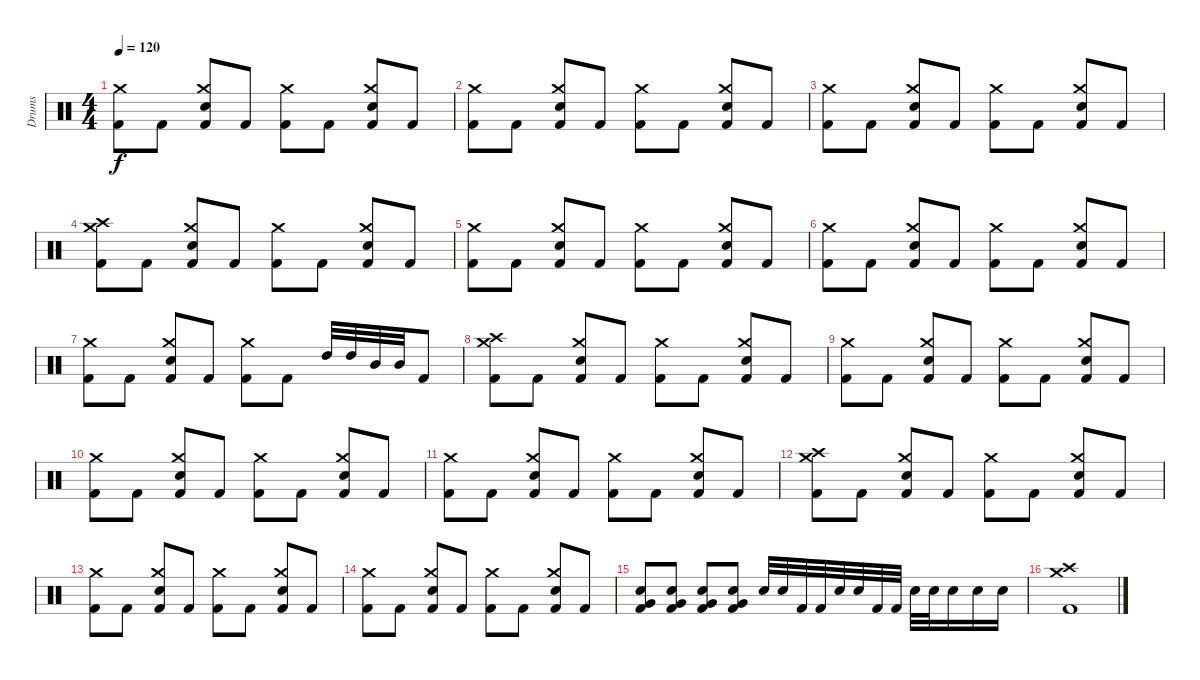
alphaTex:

\track ("Drums" "Drums") {instrument percussion}
\staff {score}
\articulation defaults
\ts (4 4)
\tempo 120
\clef neutral
\ks c
("Kick (hit) 2" "Crash medium (hit)").8{dy f} "Kick (hit) 2".8 ("Kick (hit) 2" "Snare (hit) 2" "Crash medium (hit)").8 "Kick (hit) 2".8 ("Kick (hit) 2" "Crash medium (hit)").8 "Kick (hit) 2".8 ("Kick (hit) 2" "Snare (hit) 2" "Crash medium (hit)").8 "Kick (hit) 2".8 |
("Kick (hit) 2" "Crash medium (hit)").8 "Kick (hit) 2".8 ("Kick (hit) 2" "Snare (hit) 2" "Crash medium (hit)").8 "Kick (hit) 2".8 ("Kick (hit) 2" "Crash medium (hit)").8 "Kick (hit) 2".8 ("Kick (hit) 2" "Snare (hit) 2" "Crash medium (hit)").8 "Kick (hit) 2".8 |
("Kick (hit) 2" "Crash medium (hit)").8 "Kick (hit) 2".8 ("Kick (hit) 2" "Snare (hit) 2" "Crash medium (hit)").8 "Kick (hit) 2".8 ("Kick (hit) 2" "Crash medium (hit)").8 "Kick (hit) 2".8 ("Kick (hit) 2" "Snare (hit) 2" "Crash medium (hit)").8 "Kick (hit) 2".8 |
("Kick (hit) 2" "Crash high (hit)" "Crash medium (hit)").8 "Kick (hit) 2".8 ("Kick (hit) 2" "Snare (hit) 2" "Crash medium (hit)").8 "Kick (hit) 2".8 ("Kick (hit) 2" "Crash medium (hit)").8 "Kick (hit) 2".8 ("Kick (hit) 2" "Snare (hit) 2" "Crash medium (hit)").8 "Kick (hit) 2".8 |
("Kick (hit) 2" "Crash medium (hit)").8 "Kick (hit) 2".8 ("Kick (hit) 2" "Snare (hit) 2" "Crash medium (hit)").8 "Kick (hit) 2".8 ("Kick (hit) 2" "Crash medium (hit)").8 "Kick (hit) 2".8 ("Kick (hit) 2" "Snare (hit) 2" "Crash medium (hit)").8 "Kick (hit) 2".8 |
("Kick (hit) 2" "Crash medium (hit)").8 "Kick (hit) 2".8 ("Kick (hit) 2" "Snare (hit) 2" "Crash medium (hit)").8 "Kick (hit) 2".8 ("Kick (hit) 2" "Crash medium (hit)").8 "Kick (hit) 2".8 ("Kick (hit) 2" "Snare (hit) 2" "Crash medium (hit)").8 "Kick (hit) 2".8 |
("Kick (hit) 2" "Crash medium (hit)").8 "Kick (hit) 2".8 ("Kick (hit) 2" "Snare (hit) 2" "Crash medium (hit)").8 "Kick (hit) 2".8 ("Kick (hit) 2" "Crash medium (hit)").8 "Kick (hit) 2".8 "High Tom (hit)".32 "High Tom (hit)".32 "Mid Tom (hit)".32 "Mid Tom (hit)".32 "Kick (hit) 2".8 |
("Kick (hit) 2" "Crash high (hit)" "Crash medium (hit)").8 "Kick (hit) 2".8 ("Kick (hit) 2" "Snare (hit) 2" "Crash medium (hit)").8 "Kick (hit) 2".8 ("Kick (hit) 2" "Crash medium (hit)").8 "Kick (hit) 2".8 ("Kick (hit) 2" "Snare (hit) 2" "Crash medium (hit)").8 "Kick (hit) 2".8 |
("Kick (hit) 2" "Crash medium (hit)").8 "Kick (hit) 2".8 ("Kick (hit) 2" "Snare (hit) 2" "Crash medium (hit)").8 "Kick (hit) 2".8 ("Kick (hit) 2" "Crash medium (hit)").8 "Kick (hit) 2".8 ("Kick (hit) 2" "Snare (hit) 2" "Crash medium (hit)").8 "Kick (hit) 2".8 |
("Kick (hit) 2" "Crash medium (hit)").8 "Kick (hit) 2".8 ("Kick (hit) 2" "Snare (hit) 2" "Crash medium (hit)").8 "Kick (hit) 2".8 ("Kick (hit) 2" "Crash medium (hit)").8 "Kick (hit) 2".8 ("Kick (hit) 2" "Snare (hit) 2" "Crash medium (hit)").8 "Kick (hit) 2".8 |
("Kick (hit) 2" "Crash medium (hit)").8 "Kick (hit) 2".8 ("Kick (hit) 2" "Snare (hit) 2" "Crash medium (hit)").8 "Kick (hit) 2".8 ("Kick (hit) 2" "Crash medium (hit)").8 "Kick (hit) 2".8 ("Kick (hit) 2" "Snare (hit) 2" "Crash medium (hit)").8 "Kick (hit) 2".8 |
("Kick (hit) 2" "Crash high (hit)" "Crash medium (hit)").8 "Kick (hit) 2".8 ("Kick (hit) 2" "Snare (hit) 2" "Crash medium (hit)").8 "Kick (hit) 2".8 ("Kick (hit) 2" "Crash medium (hit)").8 "Kick (hit) 2".8 ("Kick (hit) 2" "Snare (hit) 2" "Crash medium (hit)").8 "Kick (hit) 2".8 |
("Kick (hit) 2" "Crash medium (hit)").8 "Kick (hit) 2".8 ("Kick (hit) 2" "Snare (hit) 2" "Crash medium (hit)").8 "Kick (hit) 2".8 ("Kick (hit) 2" "Crash medium (hit)").8 "Kick (hit) 2".8 ("Kick (hit) 2" "Snare (hit) 2" "Crash medium (hit)").8 "Kick (hit) 2".8 |
("Kick (hit) 2" "Crash medium (hit)").8 "Kick (hit) 2".8 ("Kick (hit) 2" "Snare (hit) 2" "Crash medium (hit)").8 "Kick (hit) 2".8 ("Kick (hit) 2" "Crash medium (hit)").8 "Kick (hit) 2".8 ("Kick (hit) 2" "Snare (hit) 2" "Crash medium (hit)").8 "Kick (hit) 2".8 |
("Kick (hit) 2" "Snare (hit) 2" "Very Low Tom (hit)").8 ("Kick (hit) 2" "Snare (hit) 2" "Very Low Tom (hit)").8 ("Kick (hit) 2" "Snare (hit) 2" "Very Low Tom (hit)").8 ("Kick (hit) 2" "Snare (hit) 2" "Very Low Tom (hit)").8 "Snare (hit) 2".32 "Snare (hit) 2".32 "Kick (hit) 2".32 "Kick (hit) 2".32 "Snare (hit) 2".32 "Snare (hit) 2".32 "Kick (hit) 2".32 "Kick (hit) 2".32 "Snare (hit) 2".32 "Snare (hit) 2".32 "Snare (hit) 2".16 "Snare (hit) 2".16 "Snare (hit) 2".16 |
("Kick (hit) 2" "Crash high (hit)" "Crash medium (hit)").1
